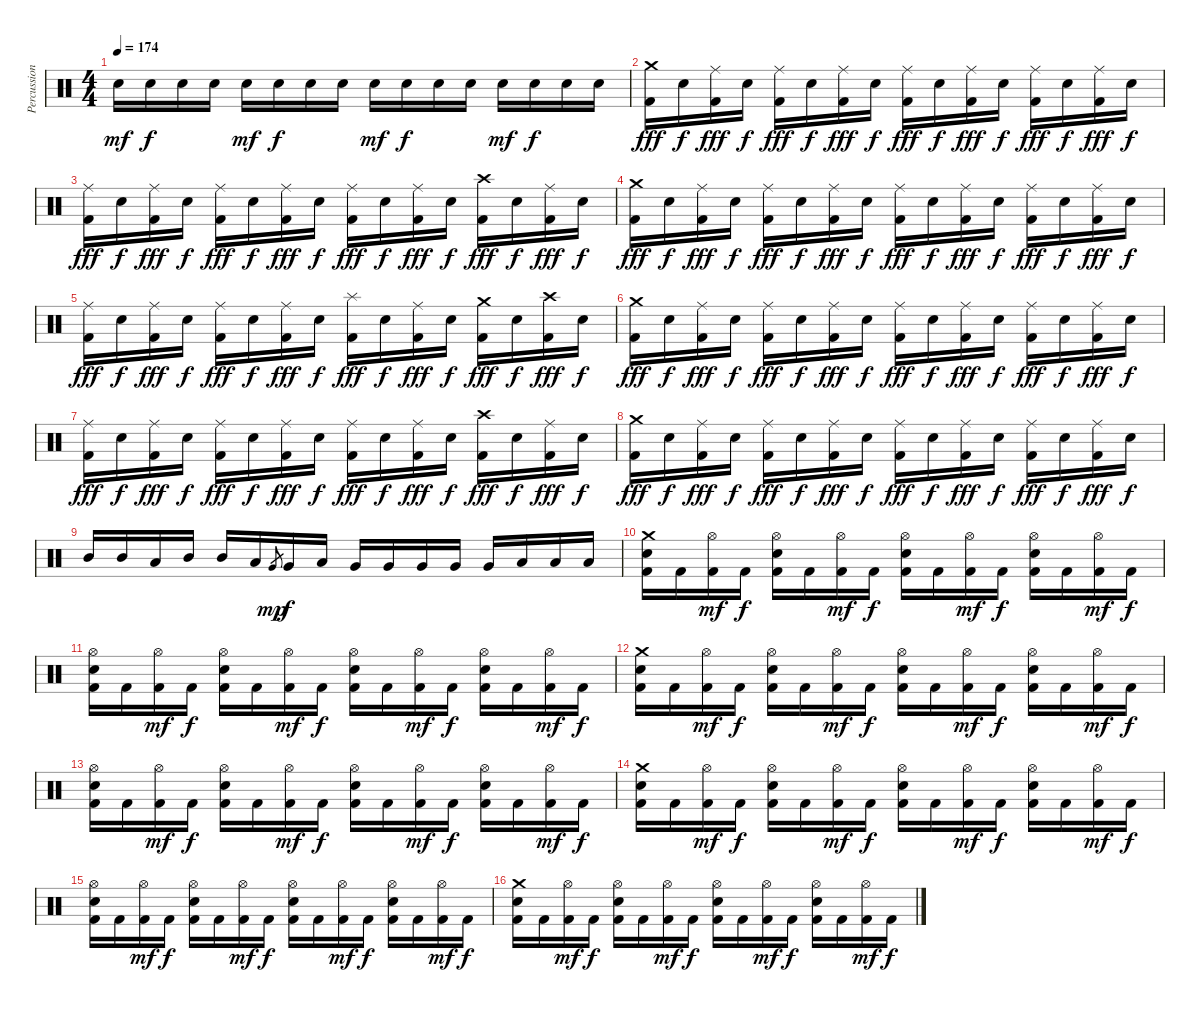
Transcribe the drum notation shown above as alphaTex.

\track ("Percussion" "Percussion") {instrument percussion}
\staff {score}
\articulation defaults
\ts (4 4)
\tempo 174
\clef neutral
\ks c "Electric Snare (hit)".16{dy mf} "Electric Snare (hit)".16{dy f} "Electric Snare (hit)".16 "Electric Snare (hit)".16 "Electric Snare (hit)".16{dy mf} "Electric Snare (hit)".16{dy f} "Electric Snare (hit)".16 "Electric Snare (hit)".16 "Electric Snare (hit)".16{dy mf} "Electric Snare (hit)".16{dy f} "Electric Snare (hit)".16 "Electric Snare (hit)".16 "Electric Snare (hit)".16{dy mf} "Electric Snare (hit)".16{dy f} "Electric Snare (hit)".16 "Electric Snare (hit)".16
|
("Crash medium (hit)" "Kick (hit) 2").16{dy fff volume 12} "Electric Snare (hit)".16{dy f} ("Ride (middle)" "Kick (hit) 2").16{dy fff} "Electric Snare (hit)".16{dy f} ("Ride (middle)" "Kick (hit) 2").16{dy fff} "Electric Snare (hit)".16{dy f} ("Ride (middle)" "Kick (hit) 2").16{dy fff} "Electric Snare (hit)".16{dy f} ("Ride (middle)" "Kick (hit) 2").16{dy fff} "Electric Snare (hit)".16{dy f} ("Ride (middle)" "Kick (hit) 2").16{dy fff} "Electric Snare (hit)".16{dy f} ("Ride (middle)" "Kick (hit) 2").16{dy fff} "Electric Snare (hit)".16{dy f} ("Ride (middle)" "Kick (hit) 2").16{dy fff} "Electric Snare (hit)".16{dy f} |
("Ride (middle)" "Kick (hit) 2").16{dy fff} "Electric Snare (hit)".16{dy f} ("Ride (middle)" "Kick (hit) 2").16{dy fff} "Electric Snare (hit)".16{dy f} ("Ride (middle)" "Kick (hit) 2").16{dy fff} "Electric Snare (hit)".16{dy f} ("Ride (middle)" "Kick (hit) 2").16{dy fff} "Electric Snare (hit)".16{dy f} ("Ride (middle)" "Kick (hit) 2").16{dy fff} "Electric Snare (hit)".16{dy f} ("Ride (middle)" "Kick (hit) 2").16{dy fff} "Electric Snare (hit)".16{dy f} ("Crash high (hit)" "Kick (hit) 2").16{dy fff} "Electric Snare (hit)".16{dy f} ("Ride (middle)" "Kick (hit) 2").16{dy fff} "Electric Snare (hit)".16{dy f} |
("Crash medium (hit)" "Kick (hit) 2").16{dy fff} "Electric Snare (hit)".16{dy f} ("Ride (middle)" "Kick (hit) 2").16{dy fff} "Electric Snare (hit)".16{dy f} ("Ride (middle)" "Kick (hit) 2").16{dy fff} "Electric Snare (hit)".16{dy f} ("Ride (middle)" "Kick (hit) 2").16{dy fff} "Electric Snare (hit)".16{dy f} ("Ride (middle)" "Kick (hit) 2").16{dy fff} "Electric Snare (hit)".16{dy f} ("Ride (middle)" "Kick (hit) 2").16{dy fff} "Electric Snare (hit)".16{dy f} ("Ride (middle)" "Kick (hit) 2").16{dy fff} "Electric Snare (hit)".16{dy f} ("Ride (middle)" "Kick (hit) 2").16{dy fff} "Electric Snare (hit)".16{dy f} |
("Ride (middle)" "Kick (hit) 2").16{dy fff} "Electric Snare (hit)".16{dy f} ("Ride (middle)" "Kick (hit) 2").16{dy fff} "Electric Snare (hit)".16{dy f} ("Ride (middle)" "Kick (hit) 2").16{dy fff} "Electric Snare (hit)".16{dy f} ("Ride (middle)" "Kick (hit) 2").16{dy fff} "Electric Snare (hit)".16{dy f} ("Splash (hit)" "Kick (hit) 2").16{dy fff} "Electric Snare (hit)".16{dy f} ("Ride (middle)" "Kick (hit) 2").16{dy fff} "Electric Snare (hit)".16{dy f} ("Crash medium (hit)" "Kick (hit) 2").16{dy fff} "Electric Snare (hit)".16{dy f} ("Crash high (hit)" "Kick (hit) 2").16{dy fff} "Electric Snare (hit)".16{dy f} |
("Crash medium (hit)" "Kick (hit) 2").16{dy fff volume 12} "Electric Snare (hit)".16{dy f} ("Ride (middle)" "Kick (hit) 2").16{dy fff} "Electric Snare (hit)".16{dy f} ("Ride (middle)" "Kick (hit) 2").16{dy fff} "Electric Snare (hit)".16{dy f} ("Ride (middle)" "Kick (hit) 2").16{dy fff} "Electric Snare (hit)".16{dy f} ("Ride (middle)" "Kick (hit) 2").16{dy fff} "Electric Snare (hit)".16{dy f} ("Ride (middle)" "Kick (hit) 2").16{dy fff} "Electric Snare (hit)".16{dy f} ("Ride (middle)" "Kick (hit) 2").16{dy fff} "Electric Snare (hit)".16{dy f} ("Ride (middle)" "Kick (hit) 2").16{dy fff} "Electric Snare (hit)".16{dy f} |
("Ride (middle)" "Kick (hit) 2").16{dy fff} "Electric Snare (hit)".16{dy f} ("Ride (middle)" "Kick (hit) 2").16{dy fff} "Electric Snare (hit)".16{dy f} ("Ride (middle)" "Kick (hit) 2").16{dy fff} "Electric Snare (hit)".16{dy f} ("Ride (middle)" "Kick (hit) 2").16{dy fff} "Electric Snare (hit)".16{dy f} ("Ride (middle)" "Kick (hit) 2").16{dy fff} "Electric Snare (hit)".16{dy f} ("Ride (middle)" "Kick (hit) 2").16{dy fff} "Electric Snare (hit)".16{dy f} ("Crash high (hit)" "Kick (hit) 2").16{dy fff} "Electric Snare (hit)".16{dy f} ("Ride (middle)" "Kick (hit) 2").16{dy fff} "Electric Snare (hit)".16{dy f} |
("Crash medium (hit)" "Kick (hit) 2").16{dy fff} "Electric Snare (hit)".16{dy f} ("Ride (middle)" "Kick (hit) 2").16{dy fff} "Electric Snare (hit)".16{dy f} ("Ride (middle)" "Kick (hit) 2").16{dy fff} "Electric Snare (hit)".16{dy f} ("Ride (middle)" "Kick (hit) 2").16{dy fff} "Electric Snare (hit)".16{dy f} ("Ride (middle)" "Kick (hit) 2").16{dy fff} "Electric Snare (hit)".16{dy f} ("Ride (middle)" "Kick (hit) 2").16{dy fff} "Electric Snare (hit)".16{dy f} ("Ride (middle)" "Kick (hit) 2").16{dy fff} "Electric Snare (hit)".16{dy f} ("Ride (middle)" "Kick (hit) 2").16{dy fff} "Electric Snare (hit)".16{dy f} |
"Mid Tom (hit)".16 "Mid Tom (hit)".16 "Low Tom (hit)".16 "Mid Tom (hit)".16 "Mid Tom (hit)".16 "Low Tom (hit)".16 "Very Low Tom (hit)".8{gr dy mp} "Very Low Tom (hit)".16{dy f} "Low Tom (hit)".16 "Very Low Tom (hit)".16 "Very Low Tom (hit)".16 "Very Low Tom (hit)".16 "Very Low Tom (hit)".16 "Very Low Tom (hit)".16 "Low Floor Tom (hit)".16 "Low Floor Tom (hit)".16 "Low Floor Tom (hit)".16 |
("Crash medium (hit)" "Electric Snare (hit)" "Kick (hit) 2").16 "Kick (hit) 2".16 ("Hi-Hat (open)" "Kick (hit) 2").16{dy mf} "Kick (hit) 2".16{dy f} ("Hi-Hat (open)" "Electric Snare (hit)" "Kick (hit) 2").16 "Kick (hit) 2".16 ("Hi-Hat (open)" "Kick (hit) 2").16{dy mf} "Kick (hit) 2".16{dy f} ("Hi-Hat (open)" "Electric Snare (hit)" "Kick (hit) 2").16 "Kick (hit) 2".16 ("Hi-Hat (open)" "Kick (hit) 2").16{dy mf} "Kick (hit) 2".16{dy f} ("Hi-Hat (open)" "Electric Snare (hit)" "Kick (hit) 2").16 "Kick (hit) 2".16 ("Hi-Hat (open)" "Kick (hit) 2").16{dy mf} "Kick (hit) 2".16{dy f} |
("Hi-Hat (open)" "Electric Snare (hit)" "Kick (hit) 2").16 "Kick (hit) 2".16 ("Hi-Hat (open)" "Kick (hit) 2").16{dy mf} "Kick (hit) 2".16{dy f} ("Hi-Hat (open)" "Electric Snare (hit)" "Kick (hit) 2").16 "Kick (hit) 2".16 ("Hi-Hat (open)" "Kick (hit) 2").16{dy mf} "Kick (hit) 2".16{dy f} ("Hi-Hat (open)" "Electric Snare (hit)" "Kick (hit) 2").16 "Kick (hit) 2".16 ("Hi-Hat (open)" "Kick (hit) 2").16{dy mf} "Kick (hit) 2".16{dy f} ("Hi-Hat (open)" "Electric Snare (hit)" "Kick (hit) 2").16 "Kick (hit) 2".16 ("Hi-Hat (open)" "Kick (hit) 2").16{dy mf} "Kick (hit) 2".16{dy f} |
("Crash medium (hit)" "Electric Snare (hit)" "Kick (hit) 2").16 "Kick (hit) 2".16 ("Hi-Hat (open)" "Kick (hit) 2").16{dy mf} "Kick (hit) 2".16{dy f} ("Hi-Hat (open)" "Electric Snare (hit)" "Kick (hit) 2").16 "Kick (hit) 2".16 ("Hi-Hat (open)" "Kick (hit) 2").16{dy mf} "Kick (hit) 2".16{dy f} ("Hi-Hat (open)" "Electric Snare (hit)" "Kick (hit) 2").16 "Kick (hit) 2".16 ("Hi-Hat (open)" "Kick (hit) 2").16{dy mf} "Kick (hit) 2".16{dy f} ("Hi-Hat (open)" "Electric Snare (hit)" "Kick (hit) 2").16 "Kick (hit) 2".16 ("Hi-Hat (open)" "Kick (hit) 2").16{dy mf} "Kick (hit) 2".16{dy f} |
("Hi-Hat (open)" "Electric Snare (hit)" "Kick (hit) 2").16 "Kick (hit) 2".16 ("Hi-Hat (open)" "Kick (hit) 2").16{dy mf} "Kick (hit) 2".16{dy f} ("Hi-Hat (open)" "Electric Snare (hit)" "Kick (hit) 2").16 "Kick (hit) 2".16 ("Hi-Hat (open)" "Kick (hit) 2").16{dy mf} "Kick (hit) 2".16{dy f} ("Hi-Hat (open)" "Electric Snare (hit)" "Kick (hit) 2").16 "Kick (hit) 2".16 ("Hi-Hat (open)" "Kick (hit) 2").16{dy mf} "Kick (hit) 2".16{dy f} ("Hi-Hat (open)" "Electric Snare (hit)" "Kick (hit) 2").16 "Kick (hit) 2".16 ("Hi-Hat (open)" "Kick (hit) 2").16{dy mf} "Kick (hit) 2".16{dy f} |
("Crash medium (hit)" "Electric Snare (hit)" "Kick (hit) 2").16 "Kick (hit) 2".16 ("Hi-Hat (open)" "Kick (hit) 2").16{dy mf} "Kick (hit) 2".16{dy f} ("Hi-Hat (open)" "Electric Snare (hit)" "Kick (hit) 2").16 "Kick (hit) 2".16 ("Hi-Hat (open)" "Kick (hit) 2").16{dy mf} "Kick (hit) 2".16{dy f} ("Hi-Hat (open)" "Electric Snare (hit)" "Kick (hit) 2").16 "Kick (hit) 2".16 ("Hi-Hat (open)" "Kick (hit) 2").16{dy mf} "Kick (hit) 2".16{dy f} ("Hi-Hat (open)" "Electric Snare (hit)" "Kick (hit) 2").16 "Kick (hit) 2".16 ("Hi-Hat (open)" "Kick (hit) 2").16{dy mf} "Kick (hit) 2".16{dy f} |
("Hi-Hat (open)" "Electric Snare (hit)" "Kick (hit) 2").16 "Kick (hit) 2".16 ("Hi-Hat (open)" "Kick (hit) 2").16{dy mf} "Kick (hit) 2".16{dy f} ("Hi-Hat (open)" "Electric Snare (hit)" "Kick (hit) 2").16 "Kick (hit) 2".16 ("Hi-Hat (open)" "Kick (hit) 2").16{dy mf} "Kick (hit) 2".16{dy f} ("Hi-Hat (open)" "Electric Snare (hit)" "Kick (hit) 2").16 "Kick (hit) 2".16 ("Hi-Hat (open)" "Kick (hit) 2").16{dy mf} "Kick (hit) 2".16{dy f} ("Hi-Hat (open)" "Electric Snare (hit)" "Kick (hit) 2").16 "Kick (hit) 2".16 ("Hi-Hat (open)" "Kick (hit) 2").16{dy mf} "Kick (hit) 2".16{dy f} |
("Crash medium (hit)" "Electric Snare (hit)" "Kick (hit) 2").16 "Kick (hit) 2".16 ("Hi-Hat (open)" "Kick (hit) 2").16{dy mf} "Kick (hit) 2".16{dy f} ("Hi-Hat (open)" "Electric Snare (hit)" "Kick (hit) 2").16 "Kick (hit) 2".16 ("Hi-Hat (open)" "Kick (hit) 2").16{dy mf} "Kick (hit) 2".16{dy f} ("Hi-Hat (open)" "Electric Snare (hit)" "Kick (hit) 2").16 "Kick (hit) 2".16 ("Hi-Hat (open)" "Kick (hit) 2").16{dy mf} "Kick (hit) 2".16{dy f} ("Hi-Hat (open)" "Electric Snare (hit)" "Kick (hit) 2").16 "Kick (hit) 2".16 ("Hi-Hat (open)" "Kick (hit) 2").16{dy mf} "Kick (hit) 2".16{dy f}
